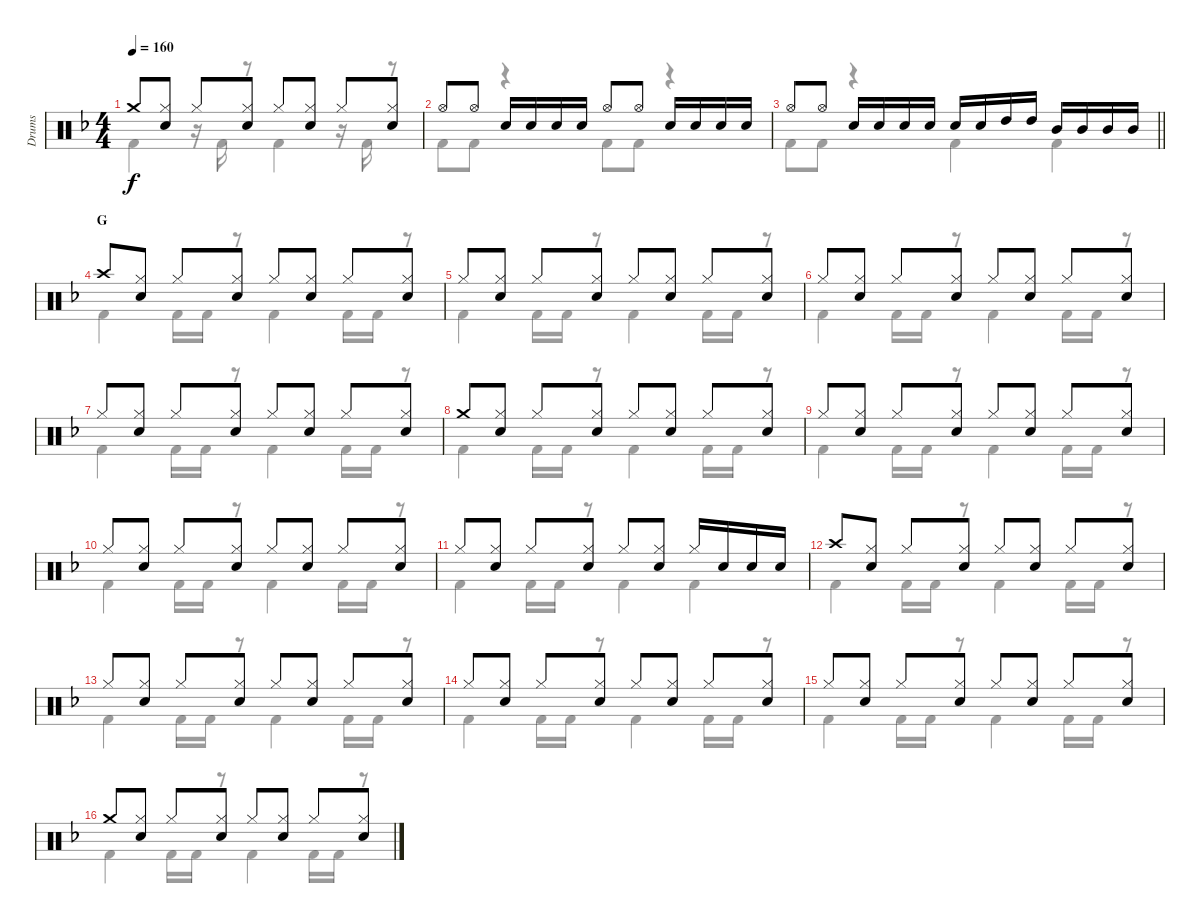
\track ("Drums" "Drums") {instrument percussion}
\staff {score}
\articulation defaults
\voice
\ts (4 4)
\tempo 160
\clef neutral
\ks f "Crash medium (hit)".8{dy f}
("Hi-Hat (closed)" "Snare (hit) 2").8 "Hi-Hat (closed)".8 ("Hi-Hat (closed)" "Snare (hit) 2").8 "Hi-Hat (closed)".8 ("Hi-Hat (closed)" "Snare (hit) 2").8 "Hi-Hat (closed)".8 ("Hi-Hat (closed)" "Snare (hit) 2").8 |
"Hi-Hat (open)".8 "Hi-Hat (open)".8 "Snare (hit) 2".16 "Snare (hit) 2".16 "Snare (hit) 2".16 "Snare (hit) 2".16 "Hi-Hat (open)".8 "Hi-Hat (open)".8 "Snare (hit) 2".16 "Snare (hit) 2".16 "Snare (hit) 2".16 "Snare (hit) 2".16 |
\barLineRight lightlight "Hi-Hat (open)".8 "Hi-Hat (open)".8 "Snare (hit) 2".16 "Snare (hit) 2".16 "Snare (hit) 2".16 "Snare (hit) 2".16 "Snare (hit) 2".16 "Snare (hit) 2".16 "High Tom (hit)".16 "High Tom (hit)".16 "Mid Tom (hit)".16 "Mid Tom (hit)".16 "Mid Tom (hit)".16 "Mid Tom (hit)".16
|
\section ("" "G")
"Crash high (hit)".8 ("Hi-Hat (closed)" "Snare (hit) 2").8 "Hi-Hat (closed)".8 ("Hi-Hat (closed)" "Snare (hit) 2").8 "Hi-Hat (closed)".8 ("Hi-Hat (closed)" "Snare (hit) 2").8 "Hi-Hat (closed)".8 ("Hi-Hat (closed)" "Snare (hit) 2").8 |
"Hi-Hat (closed)".8 ("Hi-Hat (closed)" "Snare (hit) 2").8 "Hi-Hat (closed)".8 ("Hi-Hat (closed)" "Snare (hit) 2").8 "Hi-Hat (closed)".8 ("Hi-Hat (closed)" "Snare (hit) 2").8 "Hi-Hat (closed)".8 ("Hi-Hat (closed)" "Snare (hit) 2").8 |
"Hi-Hat (closed)".8 ("Hi-Hat (closed)" "Snare (hit) 2").8 "Hi-Hat (closed)".8 ("Hi-Hat (closed)" "Snare (hit) 2").8 "Hi-Hat (closed)".8 ("Hi-Hat (closed)" "Snare (hit) 2").8 "Hi-Hat (closed)".8 ("Hi-Hat (closed)" "Snare (hit) 2").8 |
"Hi-Hat (closed)".8 ("Hi-Hat (closed)" "Snare (hit) 2").8 "Hi-Hat (closed)".8 ("Hi-Hat (closed)" "Snare (hit) 2").8 "Hi-Hat (closed)".8 ("Hi-Hat (closed)" "Snare (hit) 2").8 "Hi-Hat (closed)".8 ("Hi-Hat (closed)" "Snare (hit) 2").8 |
"Crash medium (hit)".8 ("Hi-Hat (closed)" "Snare (hit) 2").8 "Hi-Hat (closed)".8 ("Hi-Hat (closed)" "Snare (hit) 2").8 "Hi-Hat (closed)".8 ("Hi-Hat (closed)" "Snare (hit) 2").8 "Hi-Hat (closed)".8 ("Hi-Hat (closed)" "Snare (hit) 2").8 |
"Hi-Hat (closed)".8 ("Hi-Hat (closed)" "Snare (hit) 2").8 "Hi-Hat (closed)".8 ("Hi-Hat (closed)" "Snare (hit) 2").8 "Hi-Hat (closed)".8 ("Hi-Hat (closed)" "Snare (hit) 2").8 "Hi-Hat (closed)".8 ("Hi-Hat (closed)" "Snare (hit) 2").8 |
"Hi-Hat (closed)".8 ("Hi-Hat (closed)" "Snare (hit) 2").8 "Hi-Hat (closed)".8 ("Hi-Hat (closed)" "Snare (hit) 2").8 "Hi-Hat (closed)".8 ("Hi-Hat (closed)" "Snare (hit) 2").8 "Hi-Hat (closed)".8 ("Hi-Hat (closed)" "Snare (hit) 2").8 |
"Hi-Hat (closed)".8 ("Hi-Hat (closed)" "Snare (hit) 2").8 "Hi-Hat (closed)".8 ("Hi-Hat (closed)" "Snare (hit) 2").8 "Hi-Hat (closed)".8 ("Hi-Hat (closed)" "Snare (hit) 2").8 "Hi-Hat (closed)".16 "Snare (hit) 2".16 "Snare (hit) 2".16 "Snare (hit) 2".16 |
"Crash high (hit)".8 ("Hi-Hat (closed)" "Snare (hit) 2").8 "Hi-Hat (closed)".8 ("Hi-Hat (closed)" "Snare (hit) 2").8 "Hi-Hat (closed)".8 ("Hi-Hat (closed)" "Snare (hit) 2").8 "Hi-Hat (closed)".8 ("Hi-Hat (closed)" "Snare (hit) 2").8 |
"Hi-Hat (closed)".8 ("Hi-Hat (closed)" "Snare (hit) 2").8 "Hi-Hat (closed)".8 ("Hi-Hat (closed)" "Snare (hit) 2").8 "Hi-Hat (closed)".8 ("Hi-Hat (closed)" "Snare (hit) 2").8 "Hi-Hat (closed)".8 ("Hi-Hat (closed)" "Snare (hit) 2").8 |
"Hi-Hat (closed)".8 ("Hi-Hat (closed)" "Snare (hit) 2").8 "Hi-Hat (closed)".8 ("Hi-Hat (closed)" "Snare (hit) 2").8 "Hi-Hat (closed)".8 ("Hi-Hat (closed)" "Snare (hit) 2").8 "Hi-Hat (closed)".8 ("Hi-Hat (closed)" "Snare (hit) 2").8 |
"Hi-Hat (closed)".8 ("Hi-Hat (closed)" "Snare (hit) 2").8 "Hi-Hat (closed)".8 ("Hi-Hat (closed)" "Snare (hit) 2").8 "Hi-Hat (closed)".8 ("Hi-Hat (closed)" "Snare (hit) 2").8 "Hi-Hat (closed)".8 ("Hi-Hat (closed)" "Snare (hit) 2").8 |
"Crash medium (hit)".8 ("Hi-Hat (closed)" "Snare (hit) 2").8 "Hi-Hat (closed)".8 ("Hi-Hat (closed)" "Snare (hit) 2").8 "Hi-Hat (closed)".8 ("Hi-Hat (closed)" "Snare (hit) 2").8 "Hi-Hat (closed)".8 ("Hi-Hat (closed)" "Snare (hit) 2").8
\voice
\clef neutral
\ottava regular
\simile none
\ks f "Kick (hit) 2".4{dy f}
r.16 "Kick (hit) 2".16 r.8 "Kick (hit) 2".4 r.16 "Kick (hit) 2".16 r.8 |
"Kick (hit) 2".8 "Kick (hit) 2".8 r.4 "Kick (hit) 2".8 "Kick (hit) 2".8 r.4 |
\barLineRight lightlight "Kick (hit) 2".8 "Kick (hit) 2".8
r.4 "Kick (hit) 2".4 "Kick (hit) 2".4 |
"Kick (hit) 2".4 "Kick (hit) 2".16 "Kick (hit) 2".16 r.8 "Kick (hit) 2".4 "Kick (hit) 2".16 "Kick (hit) 2".16 r.8 |
"Kick (hit) 2".4 "Kick (hit) 2".16 "Kick (hit) 2".16 r.8 "Kick (hit) 2".4 "Kick (hit) 2".16 "Kick (hit) 2".16 r.8 |
"Kick (hit) 2".4 "Kick (hit) 2".16 "Kick (hit) 2".16 r.8 "Kick (hit) 2".4 "Kick (hit) 2".16 "Kick (hit) 2".16 r.8 |
"Kick (hit) 2".4 "Kick (hit) 2".16 "Kick (hit) 2".16 r.8 "Kick (hit) 2".4 "Kick (hit) 2".16 "Kick (hit) 2".16 r.8 |
"Kick (hit) 2".4 "Kick (hit) 2".16 "Kick (hit) 2".16 r.8 "Kick (hit) 2".4 "Kick (hit) 2".16 "Kick (hit) 2".16 r.8 |
"Kick (hit) 2".4 "Kick (hit) 2".16 "Kick (hit) 2".16 r.8 "Kick (hit) 2".4 "Kick (hit) 2".16 "Kick (hit) 2".16 r.8 |
"Kick (hit) 2".4 "Kick (hit) 2".16 "Kick (hit) 2".16 r.8 "Kick (hit) 2".4 "Kick (hit) 2".16 "Kick (hit) 2".16 r.8 |
"Kick (hit) 2".4 "Kick (hit) 2".16 "Kick (hit) 2".16 r.8 "Kick (hit) 2".4 "Kick (hit) 2".4 |
"Kick (hit) 2".4 "Kick (hit) 2".16 "Kick (hit) 2".16 r.8 "Kick (hit) 2".4 "Kick (hit) 2".16 "Kick (hit) 2".16 r.8 |
"Kick (hit) 2".4 "Kick (hit) 2".16 "Kick (hit) 2".16 r.8 "Kick (hit) 2".4 "Kick (hit) 2".16 "Kick (hit) 2".16 r.8 |
"Kick (hit) 2".4 "Kick (hit) 2".16 "Kick (hit) 2".16 r.8 "Kick (hit) 2".4 "Kick (hit) 2".16 "Kick (hit) 2".16 r.8 |
"Kick (hit) 2".4 "Kick (hit) 2".16 "Kick (hit) 2".16 r.8 "Kick (hit) 2".4 "Kick (hit) 2".16 "Kick (hit) 2".16 r.8 |
"Kick (hit) 2".4 "Kick (hit) 2".16 "Kick (hit) 2".16 r.8 "Kick (hit) 2".4 "Kick (hit) 2".16 "Kick (hit) 2".16 r.8
